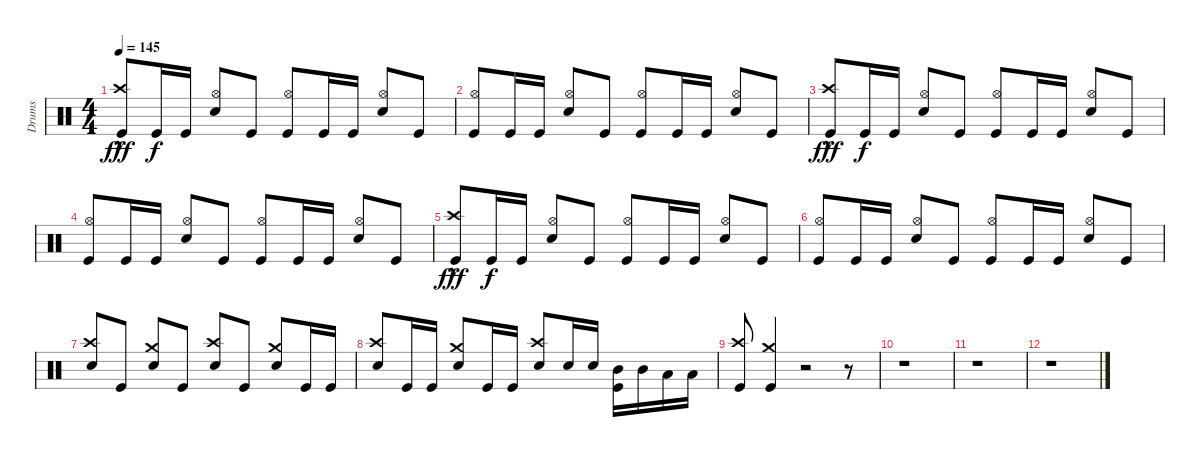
\track ("Drums" "Drums") {instrument percussion}
\staff {score}
\articulation defaults
\ts (4 4)
\tempo 145
\clef neutral
\ks c
("Crash high (hit)"{hac} "Kick (hit)").8{dy fff beam Up} "Kick (hit)".16{dy f beam Up} "Kick (hit)".16{beam Up} ("Hi-Hat (open)" "Snare (hit) 2").8{beam Up} "Kick (hit)".8{beam Up} ("Hi-Hat (open)" "Kick (hit)").8{beam Up} "Kick (hit)".16{beam Up} "Kick (hit)".16{beam Up} ("Hi-Hat (open)" "Snare (hit) 2").8{beam Up} "Kick (hit)".8{beam Up} |
("Hi-Hat (open)" "Kick (hit)").8{beam Up} "Kick (hit)".16{beam Up} "Kick (hit)".16{beam Up} ("Hi-Hat (open)" "Snare (hit) 2").8{beam Up} "Kick (hit)".8{beam Up} ("Hi-Hat (open)" "Kick (hit)").8{beam Up} "Kick (hit)".16{beam Up} "Kick (hit)".16{beam Up} ("Hi-Hat (open)" "Snare (hit) 2").8{beam Up} "Kick (hit)".8{beam Up} |
("Crash high (hit)"{hac} "Kick (hit)").8{dy fff beam Up} "Kick (hit)".16{dy f beam Up} "Kick (hit)".16{beam Up} ("Hi-Hat (open)" "Snare (hit) 2").8{beam Up} "Kick (hit)".8{beam Up} ("Hi-Hat (open)" "Kick (hit)").8{beam Up} "Kick (hit)".16{beam Up} "Kick (hit)".16{beam Up} ("Hi-Hat (open)" "Snare (hit) 2").8{beam Up} "Kick (hit)".8{beam Up} |
("Hi-Hat (open)" "Kick (hit)").8{beam Up} "Kick (hit)".16{beam Up} "Kick (hit)".16{beam Up} ("Hi-Hat (open)" "Snare (hit) 2").8{beam Up} "Kick (hit)".8{beam Up} ("Hi-Hat (open)" "Kick (hit)").8{beam Up} "Kick (hit)".16{beam Up} "Kick (hit)".16{beam Up} ("Hi-Hat (open)" "Snare (hit) 2").8{beam Up} "Kick (hit)".8{beam Up} |
("Crash high (hit)"{hac} "Kick (hit)").8{dy fff beam Up} "Kick (hit)".16{dy f beam Up} "Kick (hit)".16{beam Up} ("Hi-Hat (open)" "Snare (hit) 2").8{beam Up} "Kick (hit)".8{beam Up} ("Hi-Hat (open)" "Kick (hit)").8{beam Up} "Kick (hit)".16{beam Up} "Kick (hit)".16{beam Up} ("Hi-Hat (open)" "Snare (hit) 2").8{beam Up} "Kick (hit)".8{beam Up} |
("Hi-Hat (open)" "Kick (hit)").8{beam Up} "Kick (hit)".16{beam Up} "Kick (hit)".16{beam Up} ("Hi-Hat (open)" "Snare (hit) 2").8{beam Up} "Kick (hit)".8{beam Up} ("Hi-Hat (open)" "Kick (hit)").8{beam Up} "Kick (hit)".16{beam Up} "Kick (hit)".16{beam Up} ("Hi-Hat (open)" "Snare (hit) 2").8{beam Up} "Kick (hit)".8{beam Up} |
("Crash high (hit)" "Snare (hit) 2").8{beam Up} "Kick (hit)".8{beam Up} ("Crash medium (hit)" "Snare (hit) 2").8{beam Up} "Kick (hit)".8{beam Up} ("Crash high (hit)" "Snare (hit) 2").8{beam Up} "Kick (hit)".8{beam Up} ("Crash medium (hit)" "Snare (hit) 2").8{beam Up} "Kick (hit)".16{beam Up} "Kick (hit)".16{beam Up} |
("Crash high (hit)" "Snare (hit) 2").8{beam Up} "Kick (hit)".16{beam Up} "Kick (hit)".16{beam Up} ("Crash medium (hit)" "Snare (hit) 2").8{beam Up} "Kick (hit)".16{beam Up} "Kick (hit)".16{beam Up} ("Crash high (hit)" "Snare (hit) 2").8{beam Up} "Snare (hit) 2".16{beam Up} "Snare (hit) 2".16{beam Up} ("Mid Tom (hit)" "Kick (hit)").16{beam Down} "Mid Tom (hit)".16{beam Down} "Low Tom (hit)".16{beam Down} "Low Tom (hit)".16{beam Down} |
("Crash high (hit)" "Kick (hit)").8{beam Up} ("Crash medium (hit)" "Kick (hit)").4{beam Up} r.2 r.8 |
r.1 |
r.1 |
r.1
